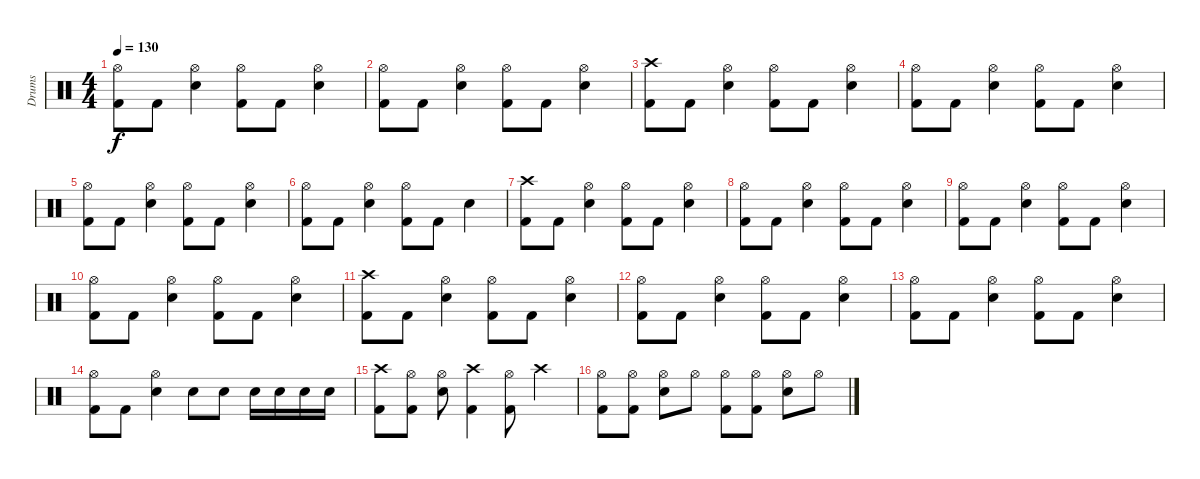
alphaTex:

\track ("Drums" "Drums") {instrument percussion}
\staff {score}
\articulation defaults
\ts (4 4)
\tempo 130
\clef neutral
\ks c
("Hi-Hat (open)" "Kick (hit) 2").8{dy f} "Kick (hit) 2".8 ("Hi-Hat (open)" "Electric Snare (hit)").4 ("Hi-Hat (open)" "Kick (hit) 2").8 "Kick (hit) 2".8 ("Hi-Hat (open)" "Electric Snare (hit)").4 |
("Hi-Hat (open)" "Kick (hit) 2").8 "Kick (hit) 2".8 ("Hi-Hat (open)" "Electric Snare (hit)").4 ("Hi-Hat (open)" "Kick (hit) 2").8 "Kick (hit) 2".8 ("Hi-Hat (open)" "Electric Snare (hit)").4 |
("Crash high (hit)" "Kick (hit) 2").8 "Kick (hit) 2".8 ("Hi-Hat (open)" "Electric Snare (hit)").4 ("Hi-Hat (open)" "Kick (hit) 2").8 "Kick (hit) 2".8 ("Hi-Hat (open)" "Electric Snare (hit)").4 |
("Hi-Hat (open)" "Kick (hit) 2").8 "Kick (hit) 2".8 ("Hi-Hat (open)" "Electric Snare (hit)").4 ("Hi-Hat (open)" "Kick (hit) 2").8 "Kick (hit) 2".8 ("Hi-Hat (open)" "Electric Snare (hit)").4 |
("Hi-Hat (open)" "Kick (hit) 2").8 "Kick (hit) 2".8 ("Hi-Hat (open)" "Electric Snare (hit)").4 ("Hi-Hat (open)" "Kick (hit) 2").8 "Kick (hit) 2".8 ("Hi-Hat (open)" "Electric Snare (hit)").4 |
("Hi-Hat (open)" "Kick (hit) 2").8 "Kick (hit) 2".8 ("Hi-Hat (open)" "Electric Snare (hit)").4 ("Hi-Hat (open)" "Kick (hit) 2").8 "Kick (hit) 2".8 "Electric Snare (hit)".4 |
("Crash high (hit)" "Kick (hit) 2").8 "Kick (hit) 2".8 ("Hi-Hat (open)" "Electric Snare (hit)").4 ("Hi-Hat (open)" "Kick (hit) 2").8 "Kick (hit) 2".8 ("Hi-Hat (open)" "Electric Snare (hit)").4 |
("Hi-Hat (open)" "Kick (hit) 2").8 "Kick (hit) 2".8 ("Hi-Hat (open)" "Electric Snare (hit)").4 ("Hi-Hat (open)" "Kick (hit) 2").8 "Kick (hit) 2".8 ("Hi-Hat (open)" "Electric Snare (hit)").4 |
("Hi-Hat (open)" "Kick (hit) 2").8 "Kick (hit) 2".8 ("Hi-Hat (open)" "Electric Snare (hit)").4 ("Hi-Hat (open)" "Kick (hit) 2").8 "Kick (hit) 2".8 ("Hi-Hat (open)" "Electric Snare (hit)").4 |
("Hi-Hat (open)" "Kick (hit) 2").8 "Kick (hit) 2".8 ("Hi-Hat (open)" "Electric Snare (hit)").4 ("Hi-Hat (open)" "Kick (hit) 2").8 "Kick (hit) 2".8 ("Hi-Hat (open)" "Electric Snare (hit)").4 |
("Crash high (hit)" "Kick (hit) 2").8 "Kick (hit) 2".8 ("Hi-Hat (open)" "Electric Snare (hit)").4 ("Hi-Hat (open)" "Kick (hit) 2").8 "Kick (hit) 2".8 ("Hi-Hat (open)" "Electric Snare (hit)").4 |
("Hi-Hat (open)" "Kick (hit) 2").8 "Kick (hit) 2".8 ("Hi-Hat (open)" "Electric Snare (hit)").4 ("Hi-Hat (open)" "Kick (hit) 2").8 "Kick (hit) 2".8 ("Hi-Hat (open)" "Electric Snare (hit)").4 |
("Hi-Hat (open)" "Kick (hit) 2").8 "Kick (hit) 2".8 ("Hi-Hat (open)" "Electric Snare (hit)").4 ("Hi-Hat (open)" "Kick (hit) 2").8 "Kick (hit) 2".8 ("Hi-Hat (open)" "Electric Snare (hit)").4 |
("Hi-Hat (open)" "Kick (hit) 2").8 "Kick (hit) 2".8 ("Hi-Hat (open)" "Electric Snare (hit)").4 "Electric Snare (hit)".8 "Electric Snare (hit)".8 "Electric Snare (hit)".16 "Electric Snare (hit)".16 "Electric Snare (hit)".16 "Electric Snare (hit)".16 |
("Crash high (hit)" "Kick (hit) 2").8 ("Hi-Hat (open)" "Kick (hit) 2").8 ("Hi-Hat (open)" "Electric Snare (hit)").8 ("Crash high (hit)" "Kick (hit) 2").4 ("Hi-Hat (open)" "Kick (hit) 2").8 "Crash high (hit)".4 |
("Hi-Hat (open)" "Kick (hit) 2").8 ("Hi-Hat (open)" "Kick (hit) 2").8 ("Hi-Hat (open)" "Electric Snare (hit)").8 "Hi-Hat (open)".8 ("Hi-Hat (open)" "Kick (hit) 2").8 ("Hi-Hat (open)" "Kick (hit) 2").8 ("Hi-Hat (open)" "Electric Snare (hit)").8 "Hi-Hat (open)".8
